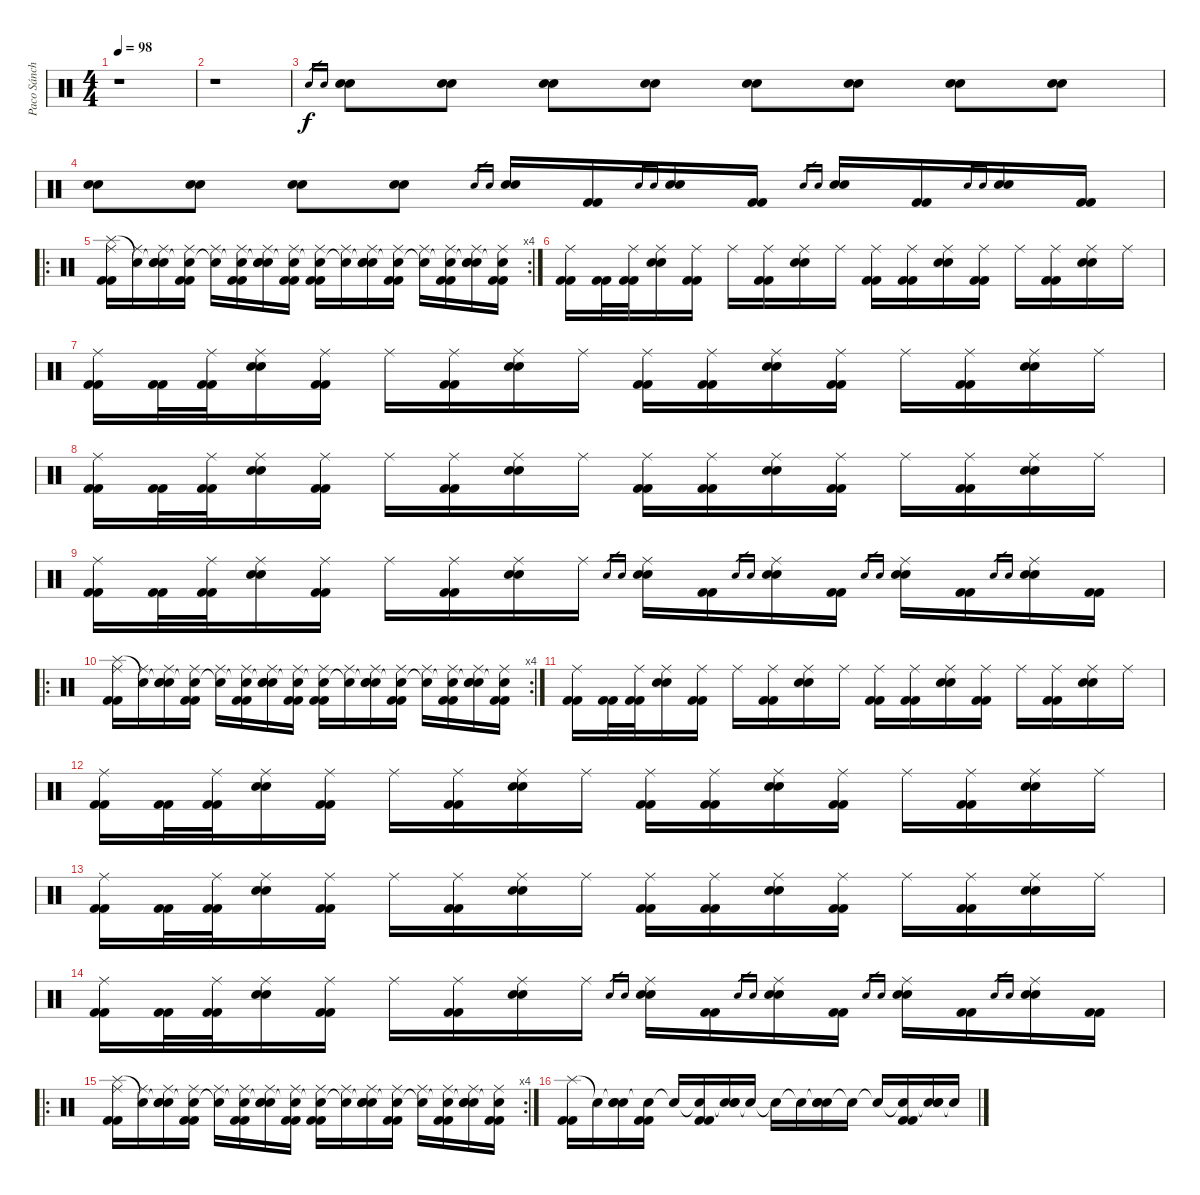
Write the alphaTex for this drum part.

\track ("Paco Sánchez" "Paco Sánch") {instrument percussion}
\staff {score}
\articulation defaults
\ts (4 4)
\tempo 98
\clef neutral
\ks c
r.1{dy f} |
r.1 |
"Electric Snare (hit)".16{gr} "Electric Snare (hit)".16{gr} ("Electric Snare (hit)" "Electric Snare (hit)").8 ("Electric Snare (hit)" "Electric Snare (hit)").8 ("Electric Snare (hit)" "Electric Snare (hit)").8 ("Electric Snare (hit)" "Electric Snare (hit)").8 ("Electric Snare (hit)" "Electric Snare (hit)").8 ("Electric Snare (hit)" "Electric Snare (hit)").8 ("Electric Snare (hit)" "Electric Snare (hit)").8 ("Electric Snare (hit)" "Electric Snare (hit)").8 |
("Electric Snare (hit)" "Electric Snare (hit)").8 ("Electric Snare (hit)" "Electric Snare (hit)").8 ("Electric Snare (hit)" "Electric Snare (hit)").8 ("Electric Snare (hit)" "Electric Snare (hit)").8 "Electric Snare (hit)".16{gr} "Electric Snare (hit)".16{gr} ("Electric Snare (hit)" "Electric Snare (hit)").16 ("Kick (hit) 2" "Kick (hit) 2").16 "Electric Snare (hit)".16{gr} "Electric Snare (hit)".16{gr} ("Electric Snare (hit)" "Electric Snare (hit)").16 ("Kick (hit) 2" "Kick (hit) 2").16 "Electric Snare (hit)".16{gr} "Electric Snare (hit)".16{gr} ("Electric Snare (hit)" "Electric Snare (hit)").16 ("Kick (hit) 2" "Kick (hit) 2").16 "Electric Snare (hit)".16{gr} "Electric Snare (hit)".16{gr} ("Electric Snare (hit)" "Electric Snare (hit)").16 ("Kick (hit) 2" "Kick (hit) 2").16 |
\ro
\rc 4
("Ride (middle)" "Splash (hit)" "Kick (hit) 2" "Kick (hit) 2").16 ("Ride (middle)" "Snare (hit)"{t}).16 ("Ride (middle)" "Snare (hit)"{t} "Electric Snare (hit)" "Electric Snare (hit)").16 ("Ride (middle)" "Snare (hit)"{t} "Kick (hit) 2" "Kick (hit) 2").16 ("Ride (middle)" "Snare (hit)"{t}).16 ("Ride (middle)" "Snare (hit)"{t} "Kick (hit) 2" "Kick (hit) 2").16 ("Ride (middle)" "Snare (hit)"{t} "Electric Snare (hit)" "Electric Snare (hit)").16 ("Ride (middle)" "Snare (hit)"{t} "Kick (hit) 2" "Kick (hit) 2").16 ("Ride (middle)" "Snare (hit)"{t} "Kick (hit) 2" "Kick (hit) 2").16 ("Ride (middle)" "Snare (hit)"{t}).16 ("Ride (middle)" "Snare (hit)"{t} "Electric Snare (hit)" "Electric Snare (hit)").16 ("Ride (middle)" "Snare (hit)"{t} "Kick (hit) 2" "Kick (hit) 2").16 ("Ride (middle)" "Snare (hit)"{t}).16 ("Ride (middle)" "Snare (hit)"{t} "Kick (hit) 2" "Kick (hit) 2").16 ("Ride (middle)" "Snare (hit)"{t} "Electric Snare (hit)" "Electric Snare (hit)").16 ("Ride (middle)" "Snare (hit)"{t} "Kick (hit) 2" "Kick (hit) 2").16 |
("Ride (middle)" "Kick (hit) 2" "Kick (hit) 2").16 ("Kick (hit) 2" "Kick (hit) 2").32 ("Ride (middle)" "Kick (hit) 2" "Kick (hit) 2").32 ("Ride (middle)" "Electric Snare (hit)" "Electric Snare (hit)").16 ("Ride (middle)" "Kick (hit) 2" "Kick (hit) 2").16 "Ride (middle)".16 ("Ride (middle)" "Kick (hit) 2" "Kick (hit) 2").16 ("Ride (middle)" "Electric Snare (hit)" "Electric Snare (hit)").16 "Ride (middle)".16 ("Ride (middle)" "Kick (hit) 2" "Kick (hit) 2").16 ("Ride (middle)" "Kick (hit) 2" "Kick (hit) 2").16 ("Ride (middle)" "Electric Snare (hit)" "Electric Snare (hit)").16 ("Ride (middle)" "Kick (hit) 2" "Kick (hit) 2").16 "Ride (middle)".16 ("Ride (middle)" "Kick (hit) 2" "Kick (hit) 2").16 ("Ride (middle)" "Electric Snare (hit)" "Electric Snare (hit)").16 "Ride (middle)".16 |
("Ride (middle)" "Kick (hit) 2" "Kick (hit) 2").16 ("Kick (hit) 2" "Kick (hit) 2").32 ("Ride (middle)" "Kick (hit) 2" "Kick (hit) 2").32 ("Ride (middle)" "Electric Snare (hit)" "Electric Snare (hit)").16 ("Ride (middle)" "Kick (hit) 2" "Kick (hit) 2").16 "Ride (middle)".16 ("Ride (middle)" "Kick (hit) 2" "Kick (hit) 2").16 ("Ride (middle)" "Electric Snare (hit)" "Electric Snare (hit)").16 "Ride (middle)".16 ("Ride (middle)" "Kick (hit) 2" "Kick (hit) 2").16 ("Ride (middle)" "Kick (hit) 2" "Kick (hit) 2").16 ("Ride (middle)" "Electric Snare (hit)" "Electric Snare (hit)").16 ("Ride (middle)" "Kick (hit) 2" "Kick (hit) 2").16 "Ride (middle)".16 ("Ride (middle)" "Kick (hit) 2" "Kick (hit) 2").16 ("Ride (middle)" "Electric Snare (hit)" "Electric Snare (hit)").16 "Ride (middle)".16 |
("Ride (middle)" "Kick (hit) 2" "Kick (hit) 2").16 ("Kick (hit) 2" "Kick (hit) 2").32 ("Ride (middle)" "Kick (hit) 2" "Kick (hit) 2").32 ("Ride (middle)" "Electric Snare (hit)" "Electric Snare (hit)").16 ("Ride (middle)" "Kick (hit) 2" "Kick (hit) 2").16 "Ride (middle)".16 ("Ride (middle)" "Kick (hit) 2" "Kick (hit) 2").16 ("Ride (middle)" "Electric Snare (hit)" "Electric Snare (hit)").16 "Ride (middle)".16 ("Ride (middle)" "Kick (hit) 2" "Kick (hit) 2").16 ("Ride (middle)" "Kick (hit) 2" "Kick (hit) 2").16 ("Ride (middle)" "Electric Snare (hit)" "Electric Snare (hit)").16 ("Ride (middle)" "Kick (hit) 2" "Kick (hit) 2").16 "Ride (middle)".16 ("Ride (middle)" "Kick (hit) 2" "Kick (hit) 2").16 ("Ride (middle)" "Electric Snare (hit)" "Electric Snare (hit)").16 "Ride (middle)".16 |
("Ride (middle)" "Kick (hit) 2" "Kick (hit) 2").16 ("Kick (hit) 2" "Kick (hit) 2").32 ("Ride (middle)" "Kick (hit) 2" "Kick (hit) 2").32 ("Ride (middle)" "Electric Snare (hit)" "Electric Snare (hit)").16 ("Ride (middle)" "Kick (hit) 2" "Kick (hit) 2").16 "Ride (middle)".16 ("Ride (middle)" "Kick (hit) 2" "Kick (hit) 2").16 ("Ride (middle)" "Electric Snare (hit)" "Electric Snare (hit)").16 "Ride (middle)".16 "Electric Snare (hit)".16{gr} "Electric Snare (hit)".16{gr} ("Ride (middle)" "Electric Snare (hit)" "Electric Snare (hit)").16 ("Kick (hit) 2" "Kick (hit) 2").16 "Electric Snare (hit)".16{gr} "Electric Snare (hit)".16{gr} ("Ride (middle)" "Electric Snare (hit)" "Electric Snare (hit)").16 ("Kick (hit) 2" "Kick (hit) 2").16 "Electric Snare (hit)".16{gr} "Electric Snare (hit)".16{gr} ("Ride (middle)" "Electric Snare (hit)" "Electric Snare (hit)").16 ("Kick (hit) 2" "Kick (hit) 2").16 "Electric Snare (hit)".16{gr} "Electric Snare (hit)".16{gr} ("Ride (middle)" "Electric Snare (hit)" "Electric Snare (hit)").16 ("Kick (hit) 2" "Kick (hit) 2").16 |
\ro
\rc 4
("Ride (middle)" "Splash (hit)" "Kick (hit) 2" "Kick (hit) 2").16 ("Ride (middle)" "Snare (hit)"{t}).16 ("Ride (middle)" "Snare (hit)"{t} "Electric Snare (hit)" "Electric Snare (hit)").16 ("Ride (middle)" "Snare (hit)"{t} "Kick (hit) 2" "Kick (hit) 2").16 ("Ride (middle)" "Snare (hit)"{t}).16 ("Ride (middle)" "Snare (hit)"{t} "Kick (hit) 2" "Kick (hit) 2").16 ("Ride (middle)" "Snare (hit)"{t} "Electric Snare (hit)" "Electric Snare (hit)").16 ("Ride (middle)" "Snare (hit)"{t} "Kick (hit) 2" "Kick (hit) 2").16 ("Ride (middle)" "Snare (hit)"{t} "Kick (hit) 2" "Kick (hit) 2").16 ("Ride (middle)" "Snare (hit)"{t}).16 ("Ride (middle)" "Snare (hit)"{t} "Electric Snare (hit)" "Electric Snare (hit)").16 ("Ride (middle)" "Snare (hit)"{t} "Kick (hit) 2" "Kick (hit) 2").16 ("Ride (middle)" "Snare (hit)"{t}).16 ("Ride (middle)" "Snare (hit)"{t} "Kick (hit) 2" "Kick (hit) 2").16 ("Ride (middle)" "Snare (hit)"{t} "Electric Snare (hit)" "Electric Snare (hit)").16 ("Ride (middle)" "Snare (hit)"{t} "Kick (hit) 2" "Kick (hit) 2").16 |
("Ride (middle)" "Kick (hit) 2" "Kick (hit) 2").16 ("Kick (hit) 2" "Kick (hit) 2").32 ("Ride (middle)" "Kick (hit) 2" "Kick (hit) 2").32 ("Ride (middle)" "Electric Snare (hit)" "Electric Snare (hit)").16 ("Ride (middle)" "Kick (hit) 2" "Kick (hit) 2").16 "Ride (middle)".16 ("Ride (middle)" "Kick (hit) 2" "Kick (hit) 2").16 ("Ride (middle)" "Electric Snare (hit)" "Electric Snare (hit)").16 "Ride (middle)".16 ("Ride (middle)" "Kick (hit) 2" "Kick (hit) 2").16 ("Ride (middle)" "Kick (hit) 2" "Kick (hit) 2").16 ("Ride (middle)" "Electric Snare (hit)" "Electric Snare (hit)").16 ("Ride (middle)" "Kick (hit) 2" "Kick (hit) 2").16 "Ride (middle)".16 ("Ride (middle)" "Kick (hit) 2" "Kick (hit) 2").16 ("Ride (middle)" "Electric Snare (hit)" "Electric Snare (hit)").16 "Ride (middle)".16 |
("Ride (middle)" "Kick (hit) 2" "Kick (hit) 2").16 ("Kick (hit) 2" "Kick (hit) 2").32 ("Ride (middle)" "Kick (hit) 2" "Kick (hit) 2").32 ("Ride (middle)" "Electric Snare (hit)" "Electric Snare (hit)").16 ("Ride (middle)" "Kick (hit) 2" "Kick (hit) 2").16 "Ride (middle)".16 ("Ride (middle)" "Kick (hit) 2" "Kick (hit) 2").16 ("Ride (middle)" "Electric Snare (hit)" "Electric Snare (hit)").16 "Ride (middle)".16 ("Ride (middle)" "Kick (hit) 2" "Kick (hit) 2").16 ("Ride (middle)" "Kick (hit) 2" "Kick (hit) 2").16 ("Ride (middle)" "Electric Snare (hit)" "Electric Snare (hit)").16 ("Ride (middle)" "Kick (hit) 2" "Kick (hit) 2").16 "Ride (middle)".16 ("Ride (middle)" "Kick (hit) 2" "Kick (hit) 2").16 ("Ride (middle)" "Electric Snare (hit)" "Electric Snare (hit)").16 "Ride (middle)".16 |
("Ride (middle)" "Kick (hit) 2" "Kick (hit) 2").16 ("Kick (hit) 2" "Kick (hit) 2").32 ("Ride (middle)" "Kick (hit) 2" "Kick (hit) 2").32 ("Ride (middle)" "Electric Snare (hit)" "Electric Snare (hit)").16 ("Ride (middle)" "Kick (hit) 2" "Kick (hit) 2").16 "Ride (middle)".16 ("Ride (middle)" "Kick (hit) 2" "Kick (hit) 2").16 ("Ride (middle)" "Electric Snare (hit)" "Electric Snare (hit)").16 "Ride (middle)".16 ("Ride (middle)" "Kick (hit) 2" "Kick (hit) 2").16 ("Ride (middle)" "Kick (hit) 2" "Kick (hit) 2").16 ("Ride (middle)" "Electric Snare (hit)" "Electric Snare (hit)").16 ("Ride (middle)" "Kick (hit) 2" "Kick (hit) 2").16 "Ride (middle)".16 ("Ride (middle)" "Kick (hit) 2" "Kick (hit) 2").16 ("Ride (middle)" "Electric Snare (hit)" "Electric Snare (hit)").16 "Ride (middle)".16 |
("Ride (middle)" "Kick (hit) 2" "Kick (hit) 2").16 ("Kick (hit) 2" "Kick (hit) 2").32 ("Ride (middle)" "Kick (hit) 2" "Kick (hit) 2").32 ("Ride (middle)" "Electric Snare (hit)" "Electric Snare (hit)").16 ("Ride (middle)" "Kick (hit) 2" "Kick (hit) 2").16 "Ride (middle)".16 ("Ride (middle)" "Kick (hit) 2" "Kick (hit) 2").16 ("Ride (middle)" "Electric Snare (hit)" "Electric Snare (hit)").16 "Ride (middle)".16 "Electric Snare (hit)".16{gr} "Electric Snare (hit)".16{gr} ("Ride (middle)" "Electric Snare (hit)" "Electric Snare (hit)").16 ("Kick (hit) 2" "Kick (hit) 2").16 "Electric Snare (hit)".16{gr} "Electric Snare (hit)".16{gr} ("Ride (middle)" "Electric Snare (hit)" "Electric Snare (hit)").16 ("Kick (hit) 2" "Kick (hit) 2").16 "Electric Snare (hit)".16{gr} "Electric Snare (hit)".16{gr} ("Ride (middle)" "Electric Snare (hit)" "Electric Snare (hit)").16 ("Kick (hit) 2" "Kick (hit) 2").16 "Electric Snare (hit)".16{gr} "Electric Snare (hit)".16{gr} ("Ride (middle)" "Electric Snare (hit)" "Electric Snare (hit)").16 ("Kick (hit) 2" "Kick (hit) 2").16 |
\ro
\rc 4
("Ride (middle)" "Splash (hit)" "Kick (hit) 2" "Kick (hit) 2").16 ("Ride (middle)" "Snare (hit)"{t}).16 ("Ride (middle)" "Snare (hit)"{t} "Electric Snare (hit)" "Electric Snare (hit)").16 ("Ride (middle)" "Snare (hit)"{t} "Kick (hit) 2" "Kick (hit) 2").16 ("Ride (middle)" "Snare (hit)"{t}).16 ("Ride (middle)" "Snare (hit)"{t} "Kick (hit) 2" "Kick (hit) 2").16 ("Ride (middle)" "Snare (hit)"{t} "Electric Snare (hit)" "Electric Snare (hit)").16 ("Ride (middle)" "Snare (hit)"{t} "Kick (hit) 2" "Kick (hit) 2").16 ("Ride (middle)" "Snare (hit)"{t} "Kick (hit) 2" "Kick (hit) 2").16 ("Ride (middle)" "Snare (hit)"{t}).16 ("Ride (middle)" "Snare (hit)"{t} "Electric Snare (hit)" "Electric Snare (hit)").16 ("Ride (middle)" "Snare (hit)"{t} "Kick (hit) 2" "Kick (hit) 2").16 ("Ride (middle)" "Snare (hit)"{t}).16 ("Ride (middle)" "Snare (hit)"{t} "Kick (hit) 2" "Kick (hit) 2").16 ("Ride (middle)" "Snare (hit)"{t} "Electric Snare (hit)" "Electric Snare (hit)").16 ("Ride (middle)" "Snare (hit)"{t} "Kick (hit) 2" "Kick (hit) 2").16 |
("Splash (hit)" "Kick (hit) 2" "Kick (hit) 2").16 "Snare (hit)"{t}.16 ("Snare (hit)"{t} "Electric Snare (hit)" "Electric Snare (hit)").16 ("Snare (hit)"{t} "Kick (hit) 2" "Kick (hit) 2").16 "Snare (hit)"{t}.16 ("Snare (hit)"{t} "Kick (hit) 2" "Kick (hit) 2").16 ("Snare (hit)"{t} "Electric Snare (hit)" "Electric Snare (hit)").16 "Snare (hit)"{t}.16 "Snare (hit)"{t}.16 "Snare (hit)"{t}.16 ("Snare (hit)"{t} "Electric Snare (hit)" "Electric Snare (hit)").16 "Snare (hit)"{t}.16 "Snare (hit)"{t}.16 ("Snare (hit)"{t} "Kick (hit) 2" "Kick (hit) 2").16 ("Snare (hit)"{t} "Electric Snare (hit)" "Electric Snare (hit)").16 "Snare (hit)"{t}.16
